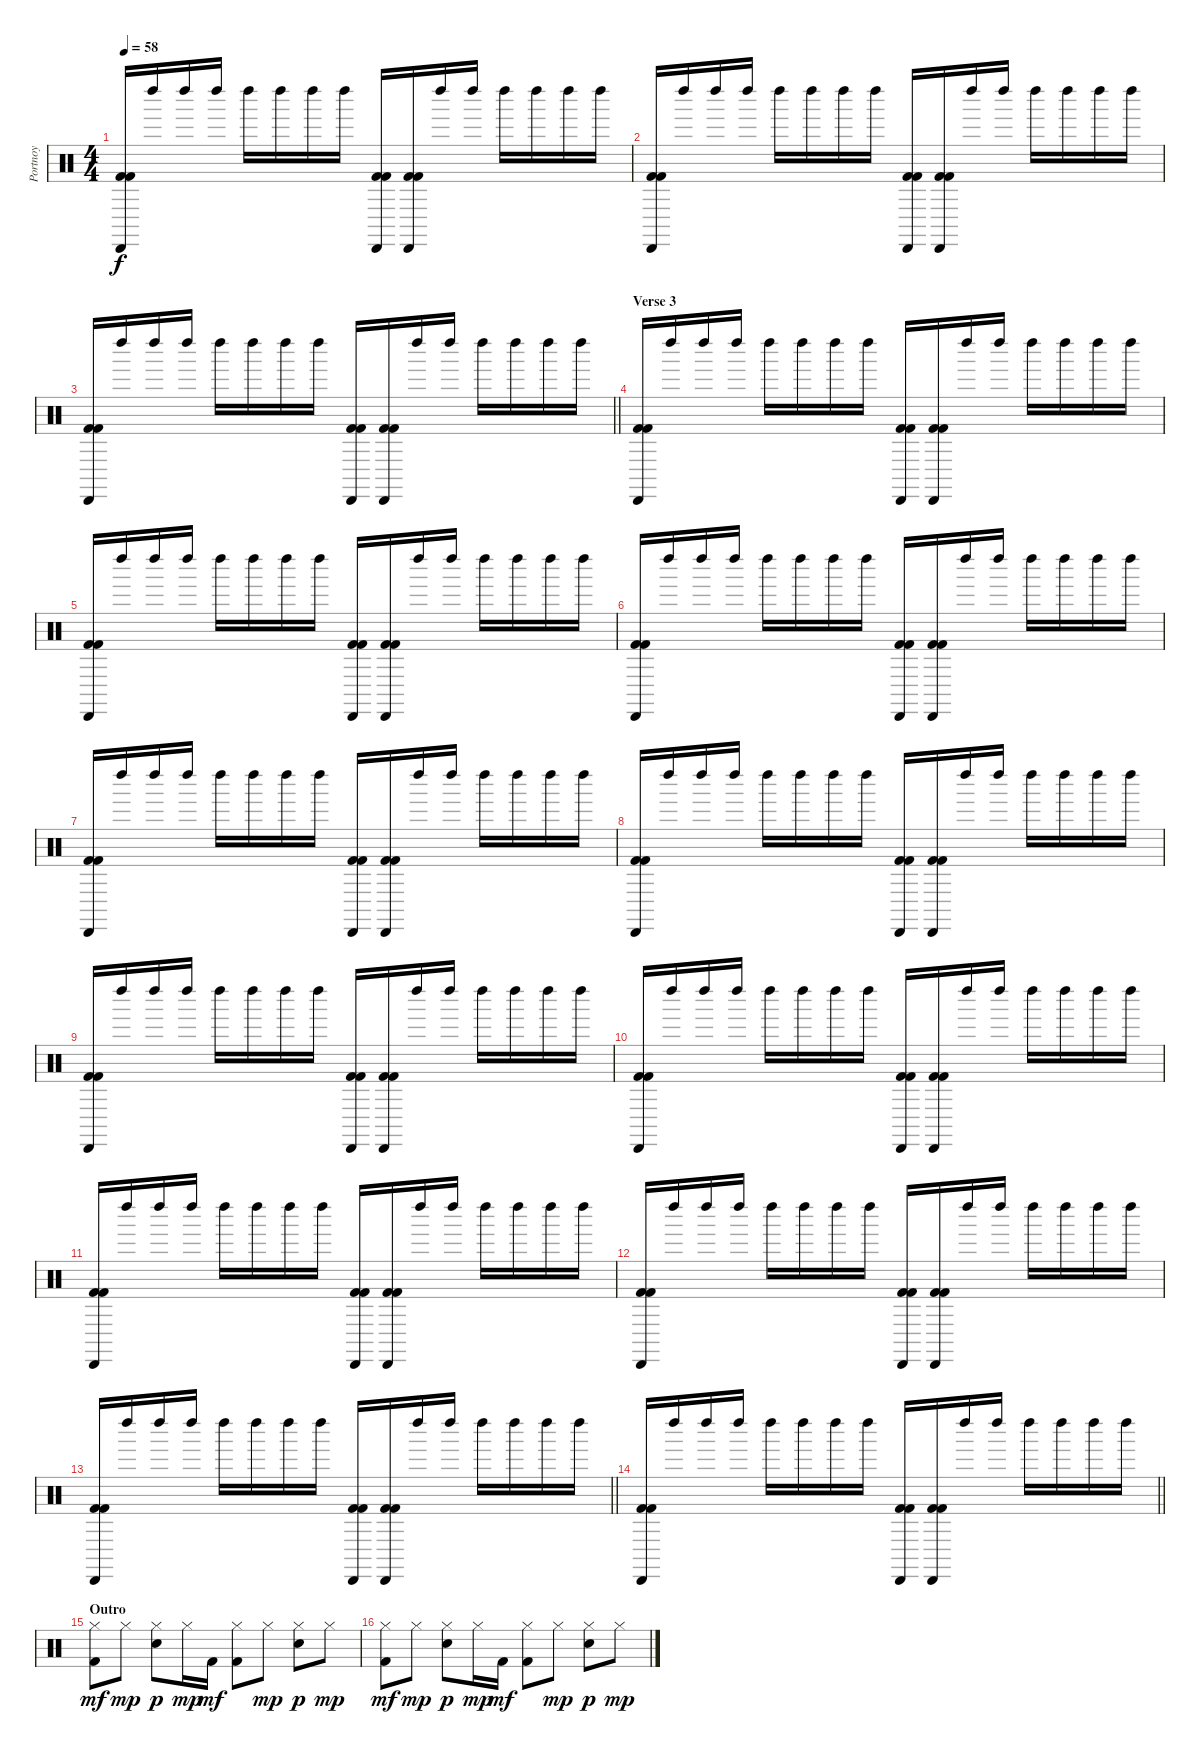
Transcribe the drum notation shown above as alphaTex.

\track ("Portnoy" "Portnoy") {instrument percussion}
\staff {score}
\articulation defaults
\ts (4 4)
\tempo 58
\clef neutral
\ks c
("Cabasa (hit)" "Kick (hit) 2" "Kick (hit) 2").16{dy f} "Left Maraca (hit)".16 "Left Maraca (hit)".16 "Left Maraca (hit)".16 "Left Maraca (hit)".16 "Left Maraca (hit)".16 "Left Maraca (hit)".16 "Left Maraca (hit)".16 ("Cabasa (hit)" "Kick (hit) 2" "Kick (hit) 2").16 ("Cabasa (hit)" "Kick (hit) 2" "Kick (hit) 2").16 "Left Maraca (hit)".16 "Left Maraca (hit)".16 "Left Maraca (hit)".16 "Left Maraca (hit)".16 "Left Maraca (hit)".16 "Left Maraca (hit)".16 |
("Cabasa (hit)" "Kick (hit) 2" "Kick (hit) 2").16 "Left Maraca (hit)".16 "Left Maraca (hit)".16 "Left Maraca (hit)".16 "Left Maraca (hit)".16 "Left Maraca (hit)".16 "Left Maraca (hit)".16 "Left Maraca (hit)".16 ("Cabasa (hit)" "Kick (hit) 2" "Kick (hit) 2").16 ("Cabasa (hit)" "Kick (hit) 2" "Kick (hit) 2").16 "Left Maraca (hit)".16 "Left Maraca (hit)".16 "Left Maraca (hit)".16 "Left Maraca (hit)".16 "Left Maraca (hit)".16 "Left Maraca (hit)".16 |
\barLineRight lightlight
("Cabasa (hit)" "Kick (hit) 2" "Kick (hit) 2").16 "Left Maraca (hit)".16 "Left Maraca (hit)".16 "Left Maraca (hit)".16 "Left Maraca (hit)".16 "Left Maraca (hit)".16 "Left Maraca (hit)".16 "Left Maraca (hit)".16 ("Cabasa (hit)" "Kick (hit) 2" "Kick (hit) 2").16 ("Cabasa (hit)" "Kick (hit) 2" "Kick (hit) 2").16 "Left Maraca (hit)".16 "Left Maraca (hit)".16 "Left Maraca (hit)".16 "Left Maraca (hit)".16 "Left Maraca (hit)".16 "Left Maraca (hit)".16 |
\section ("" "Verse 3")
("Cabasa (hit)" "Kick (hit) 2" "Kick (hit) 2").16 "Left Maraca (hit)".16 "Left Maraca (hit)".16 "Left Maraca (hit)".16 "Left Maraca (hit)".16 "Left Maraca (hit)".16 "Left Maraca (hit)".16 "Left Maraca (hit)".16 ("Cabasa (hit)" "Kick (hit) 2" "Kick (hit) 2").16 ("Cabasa (hit)" "Kick (hit) 2" "Kick (hit) 2").16 "Left Maraca (hit)".16 "Left Maraca (hit)".16 "Left Maraca (hit)".16 "Left Maraca (hit)".16 "Left Maraca (hit)".16 "Left Maraca (hit)".16 |
("Cabasa (hit)" "Kick (hit) 2" "Kick (hit) 2").16 "Left Maraca (hit)".16 "Left Maraca (hit)".16 "Left Maraca (hit)".16 "Left Maraca (hit)".16 "Left Maraca (hit)".16 "Left Maraca (hit)".16 "Left Maraca (hit)".16 ("Cabasa (hit)" "Kick (hit) 2" "Kick (hit) 2").16 ("Cabasa (hit)" "Kick (hit) 2" "Kick (hit) 2").16 "Left Maraca (hit)".16 "Left Maraca (hit)".16 "Left Maraca (hit)".16 "Left Maraca (hit)".16 "Left Maraca (hit)".16 "Left Maraca (hit)".16 |
("Cabasa (hit)" "Kick (hit) 2" "Kick (hit) 2").16 "Left Maraca (hit)".16 "Left Maraca (hit)".16 "Left Maraca (hit)".16 "Left Maraca (hit)".16 "Left Maraca (hit)".16 "Left Maraca (hit)".16 "Left Maraca (hit)".16 ("Cabasa (hit)" "Kick (hit) 2" "Kick (hit) 2").16 ("Cabasa (hit)" "Kick (hit) 2" "Kick (hit) 2").16 "Left Maraca (hit)".16 "Left Maraca (hit)".16 "Left Maraca (hit)".16 "Left Maraca (hit)".16 "Left Maraca (hit)".16 "Left Maraca (hit)".16 |
("Cabasa (hit)" "Kick (hit) 2" "Kick (hit) 2").16 "Left Maraca (hit)".16 "Left Maraca (hit)".16 "Left Maraca (hit)".16 "Left Maraca (hit)".16 "Left Maraca (hit)".16 "Left Maraca (hit)".16 "Left Maraca (hit)".16 ("Cabasa (hit)" "Kick (hit) 2" "Kick (hit) 2").16 ("Cabasa (hit)" "Kick (hit) 2" "Kick (hit) 2").16 "Left Maraca (hit)".16 "Left Maraca (hit)".16 "Left Maraca (hit)".16 "Left Maraca (hit)".16 "Left Maraca (hit)".16 "Left Maraca (hit)".16 |
("Cabasa (hit)" "Kick (hit) 2" "Kick (hit) 2").16 "Left Maraca (hit)".16 "Left Maraca (hit)".16 "Left Maraca (hit)".16 "Left Maraca (hit)".16 "Left Maraca (hit)".16 "Left Maraca (hit)".16 "Left Maraca (hit)".16 ("Cabasa (hit)" "Kick (hit) 2" "Kick (hit) 2").16 ("Cabasa (hit)" "Kick (hit) 2" "Kick (hit) 2").16 "Left Maraca (hit)".16 "Left Maraca (hit)".16 "Left Maraca (hit)".16 "Left Maraca (hit)".16 "Left Maraca (hit)".16 "Left Maraca (hit)".16 |
("Cabasa (hit)" "Kick (hit) 2" "Kick (hit) 2").16 "Left Maraca (hit)".16 "Left Maraca (hit)".16 "Left Maraca (hit)".16 "Left Maraca (hit)".16 "Left Maraca (hit)".16 "Left Maraca (hit)".16 "Left Maraca (hit)".16 ("Cabasa (hit)" "Kick (hit) 2" "Kick (hit) 2").16 ("Cabasa (hit)" "Kick (hit) 2" "Kick (hit) 2").16 "Left Maraca (hit)".16 "Left Maraca (hit)".16 "Left Maraca (hit)".16 "Left Maraca (hit)".16 "Left Maraca (hit)".16 "Left Maraca (hit)".16 |
("Cabasa (hit)" "Kick (hit) 2" "Kick (hit) 2").16 "Left Maraca (hit)".16 "Left Maraca (hit)".16 "Left Maraca (hit)".16 "Left Maraca (hit)".16 "Left Maraca (hit)".16 "Left Maraca (hit)".16 "Left Maraca (hit)".16 ("Cabasa (hit)" "Kick (hit) 2" "Kick (hit) 2").16 ("Cabasa (hit)" "Kick (hit) 2" "Kick (hit) 2").16 "Left Maraca (hit)".16 "Left Maraca (hit)".16 "Left Maraca (hit)".16 "Left Maraca (hit)".16 "Left Maraca (hit)".16 "Left Maraca (hit)".16 |
("Cabasa (hit)" "Kick (hit) 2" "Kick (hit) 2").16 "Left Maraca (hit)".16 "Left Maraca (hit)".16 "Left Maraca (hit)".16 "Left Maraca (hit)".16 "Left Maraca (hit)".16 "Left Maraca (hit)".16 "Left Maraca (hit)".16 ("Cabasa (hit)" "Kick (hit) 2" "Kick (hit) 2").16 ("Cabasa (hit)" "Kick (hit) 2" "Kick (hit) 2").16 "Left Maraca (hit)".16 "Left Maraca (hit)".16 "Left Maraca (hit)".16 "Left Maraca (hit)".16 "Left Maraca (hit)".16 "Left Maraca (hit)".16 |
("Cabasa (hit)" "Kick (hit) 2" "Kick (hit) 2").16 "Left Maraca (hit)".16 "Left Maraca (hit)".16 "Left Maraca (hit)".16 "Left Maraca (hit)".16 "Left Maraca (hit)".16 "Left Maraca (hit)".16 "Left Maraca (hit)".16 ("Cabasa (hit)" "Kick (hit) 2" "Kick (hit) 2").16 ("Cabasa (hit)" "Kick (hit) 2" "Kick (hit) 2").16 "Left Maraca (hit)".16 "Left Maraca (hit)".16 "Left Maraca (hit)".16 "Left Maraca (hit)".16 "Left Maraca (hit)".16 "Left Maraca (hit)".16 |
\barLineRight lightlight
("Cabasa (hit)" "Kick (hit) 2" "Kick (hit) 2").16 "Left Maraca (hit)".16 "Left Maraca (hit)".16 "Left Maraca (hit)".16 "Left Maraca (hit)".16 "Left Maraca (hit)".16 "Left Maraca (hit)".16 "Left Maraca (hit)".16 ("Cabasa (hit)" "Kick (hit) 2" "Kick (hit) 2").16 ("Cabasa (hit)" "Kick (hit) 2" "Kick (hit) 2").16 "Left Maraca (hit)".16 "Left Maraca (hit)".16 "Left Maraca (hit)".16 "Left Maraca (hit)".16 "Left Maraca (hit)".16 "Left Maraca (hit)".16 |
\barLineRight lightlight
("Cabasa (hit)" "Kick (hit) 2" "Kick (hit) 2").16 "Left Maraca (hit)".16 "Left Maraca (hit)".16 "Left Maraca (hit)".16 "Left Maraca (hit)".16 "Left Maraca (hit)".16 "Left Maraca (hit)".16 "Left Maraca (hit)".16 ("Cabasa (hit)" "Kick (hit) 2" "Kick (hit) 2").16 ("Cabasa (hit)" "Kick (hit) 2" "Kick (hit) 2").16 "Left Maraca (hit)".16 "Left Maraca (hit)".16 "Left Maraca (hit)".16 "Left Maraca (hit)".16 "Left Maraca (hit)".16 "Left Maraca (hit)".16 |
\section ("" "Outro")
("Hi-Hat (closed)" "Kick (hit) 2").8{dy mf} "Hi-Hat (closed)".8{dy mp} ("Hi-Hat (closed)" "Electric Snare (hit)").8{dy p} "Hi-Hat (closed)".16{dy mp} "Kick (hit) 2".16{dy mf} ("Hi-Hat (closed)" "Kick (hit) 2").8 "Hi-Hat (closed)".8{dy mp} ("Hi-Hat (closed)" "Electric Snare (hit)").8{dy p} "Hi-Hat (closed)".8{dy mp} |
("Hi-Hat (closed)" "Kick (hit) 2").8{dy mf} "Hi-Hat (closed)".8{dy mp} ("Hi-Hat (closed)" "Electric Snare (hit)").8{dy p} "Hi-Hat (closed)".16{dy mp} "Kick (hit) 2".16{dy mf} ("Hi-Hat (closed)" "Kick (hit) 2").8 "Hi-Hat (closed)".8{dy mp} ("Hi-Hat (closed)" "Electric Snare (hit)").8{dy p} "Hi-Hat (closed)".8{dy mp}
